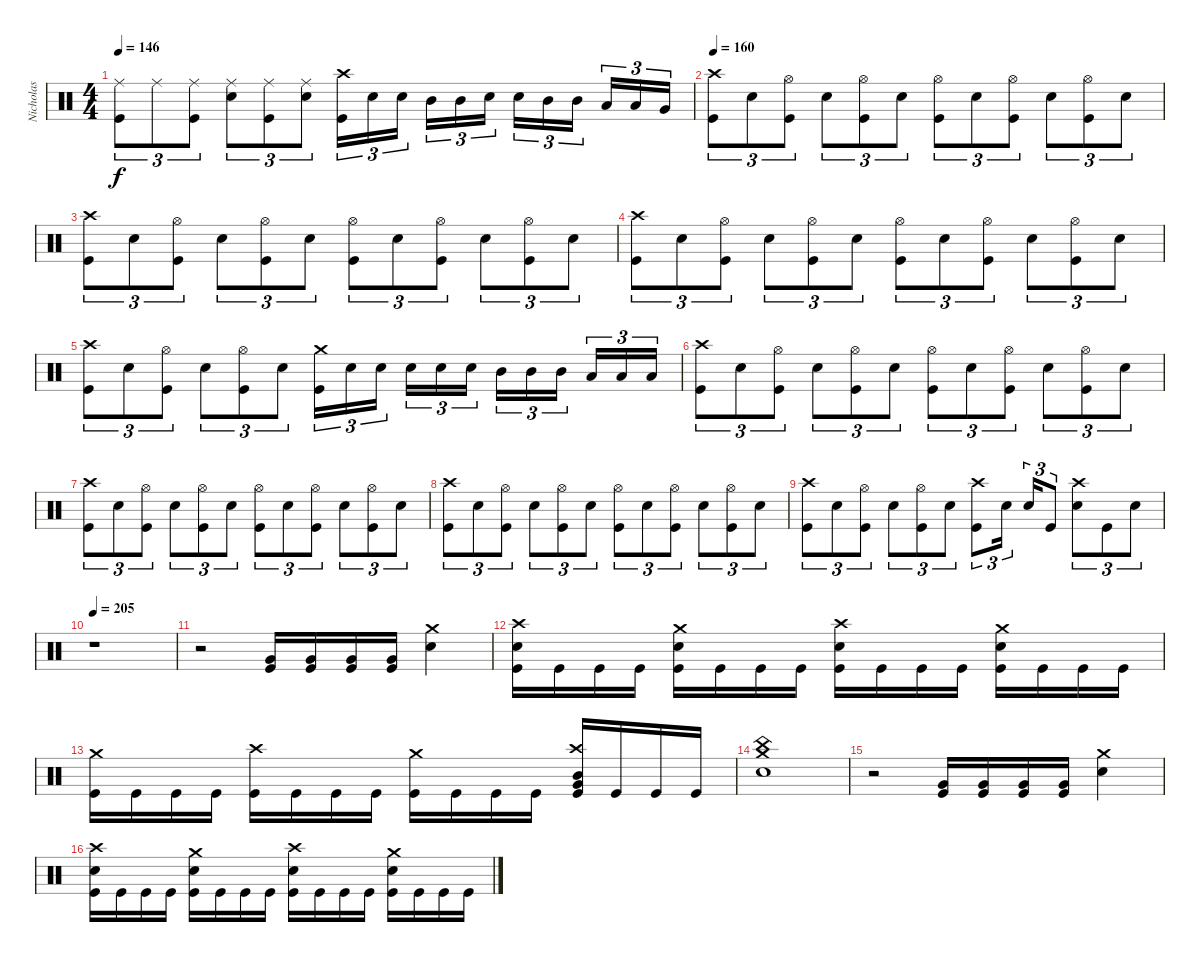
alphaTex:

\track ("Nicholas" "Nicholas") {instrument percussion}
\staff {score}
\articulation defaults
\ts (4 4)
\tempo 146
\clef neutral
\ks c
("Ride (middle)" "Kick (hit)").8{tu (3 2) dy f} "Ride (middle)".8{tu (3 2)} ("Ride (middle)" "Kick (hit)").8{tu (3 2)} ("Ride (middle)" "Electric Snare (hit)").8{tu (3 2)} ("Ride (middle)" "Kick (hit)").8{tu (3 2)} ("Ride (middle)" "Electric Snare (hit)").8{tu (3 2)} ("Crash high (hit)" "Kick (hit)").16{tu (3 2)} "Electric Snare (hit)".16{tu (3 2)} "Electric Snare (hit)".16{tu (3 2)} "Mid Tom (hit)".16{tu (3 2)} "Mid Tom (hit)".16{tu (3 2)} "Electric Snare (hit)".16{tu (3 2)} "Electric Snare (hit)".16{tu (3 2)} "Mid Tom (hit)".16{tu (3 2)} "Mid Tom (hit)".16{tu (3 2)} "Low Tom (hit)".16{tu (3 2)} "Low Tom (hit)".16{tu (3 2)} "Very Low Tom (hit)".16{tu (3 2)} |
\tempo 160
("Crash high (hit)" "Kick (hit)").8{tu (3 2)} "Electric Snare (hit)".8{tu (3 2)} ("Hi-Hat (open)" "Kick (hit)").8{tu (3 2)} "Electric Snare (hit)".8{tu (3 2)} ("Hi-Hat (open)" "Kick (hit)").8{tu (3 2)} "Electric Snare (hit)".8{tu (3 2)} ("Hi-Hat (open)" "Kick (hit)").8{tu (3 2)} "Electric Snare (hit)".8{tu (3 2)} ("Hi-Hat (open)" "Kick (hit)").8{tu (3 2)} "Electric Snare (hit)".8{tu (3 2)} ("Hi-Hat (open)" "Kick (hit)").8{tu (3 2)} "Electric Snare (hit)".8{tu (3 2)} |
("Crash high (hit)" "Kick (hit)").8{tu (3 2)} "Electric Snare (hit)".8{tu (3 2)} ("Hi-Hat (open)" "Kick (hit)").8{tu (3 2)} "Electric Snare (hit)".8{tu (3 2)} ("Hi-Hat (open)" "Kick (hit)").8{tu (3 2)} "Electric Snare (hit)".8{tu (3 2)} ("Hi-Hat (open)" "Kick (hit)").8{tu (3 2)} "Electric Snare (hit)".8{tu (3 2)} ("Hi-Hat (open)" "Kick (hit)").8{tu (3 2)} "Electric Snare (hit)".8{tu (3 2)} ("Hi-Hat (open)" "Kick (hit)").8{tu (3 2)} "Electric Snare (hit)".8{tu (3 2)} |
("Crash high (hit)" "Kick (hit)").8{tu (3 2)} "Electric Snare (hit)".8{tu (3 2)} ("Hi-Hat (open)" "Kick (hit)").8{tu (3 2)} "Electric Snare (hit)".8{tu (3 2)} ("Hi-Hat (open)" "Kick (hit)").8{tu (3 2)} "Electric Snare (hit)".8{tu (3 2)} ("Hi-Hat (open)" "Kick (hit)").8{tu (3 2)} "Electric Snare (hit)".8{tu (3 2)} ("Hi-Hat (open)" "Kick (hit)").8{tu (3 2)} "Electric Snare (hit)".8{tu (3 2)} ("Hi-Hat (open)" "Kick (hit)").8{tu (3 2)} "Electric Snare (hit)".8{tu (3 2)} |
("Crash high (hit)" "Kick (hit)").8{tu (3 2)} "Electric Snare (hit)".8{tu (3 2)} ("Hi-Hat (open)" "Kick (hit)").8{tu (3 2)} "Electric Snare (hit)".8{tu (3 2)} ("Hi-Hat (open)" "Kick (hit)").8{tu (3 2)} "Electric Snare (hit)".8{tu (3 2)} ("Crash medium (hit)" "Kick (hit)").16{tu (3 2)} "Electric Snare (hit)".16{tu (3 2)} "Electric Snare (hit)".16{tu (3 2)} "Electric Snare (hit)".16{tu (3 2)} "Electric Snare (hit)".16{tu (3 2)} "Electric Snare (hit)".16{tu (3 2)} "Mid Tom (hit)".16{tu (3 2)} "Mid Tom (hit)".16{tu (3 2)} "Mid Tom (hit)".16{tu (3 2)} "Low Tom (hit)".16{tu (3 2)} "Low Tom (hit)".16{tu (3 2)} "Low Tom (hit)".16{tu (3 2)} |
("Crash high (hit)" "Kick (hit)").8{tu (3 2)} "Electric Snare (hit)".8{tu (3 2)} ("Hi-Hat (open)" "Kick (hit)").8{tu (3 2)} "Electric Snare (hit)".8{tu (3 2)} ("Hi-Hat (open)" "Kick (hit)").8{tu (3 2)} "Electric Snare (hit)".8{tu (3 2)} ("Hi-Hat (open)" "Kick (hit)").8{tu (3 2)} "Electric Snare (hit)".8{tu (3 2)} ("Hi-Hat (open)" "Kick (hit)").8{tu (3 2)} "Electric Snare (hit)".8{tu (3 2)} ("Hi-Hat (open)" "Kick (hit)").8{tu (3 2)} "Electric Snare (hit)".8{tu (3 2)} |
("Crash high (hit)" "Kick (hit)").8{tu (3 2)} "Electric Snare (hit)".8{tu (3 2)} ("Hi-Hat (open)" "Kick (hit)").8{tu (3 2)} "Electric Snare (hit)".8{tu (3 2)} ("Hi-Hat (open)" "Kick (hit)").8{tu (3 2)} "Electric Snare (hit)".8{tu (3 2)} ("Hi-Hat (open)" "Kick (hit)").8{tu (3 2)} "Electric Snare (hit)".8{tu (3 2)} ("Hi-Hat (open)" "Kick (hit)").8{tu (3 2)} "Electric Snare (hit)".8{tu (3 2)} ("Hi-Hat (open)" "Kick (hit)").8{tu (3 2)} "Electric Snare (hit)".8{tu (3 2)} |
("Crash high (hit)" "Kick (hit)").8{tu (3 2)} "Electric Snare (hit)".8{tu (3 2)} ("Hi-Hat (open)" "Kick (hit)").8{tu (3 2)} "Electric Snare (hit)".8{tu (3 2)} ("Hi-Hat (open)" "Kick (hit)").8{tu (3 2)} "Electric Snare (hit)".8{tu (3 2)} ("Hi-Hat (open)" "Kick (hit)").8{tu (3 2)} "Electric Snare (hit)".8{tu (3 2)} ("Hi-Hat (open)" "Kick (hit)").8{tu (3 2)} "Electric Snare (hit)".8{tu (3 2)} ("Hi-Hat (open)" "Kick (hit)").8{tu (3 2)} "Electric Snare (hit)".8{tu (3 2)} |
("Crash high (hit)" "Kick (hit)").8{tu (3 2)} "Electric Snare (hit)".8{tu (3 2)} ("Hi-Hat (open)" "Kick (hit)").8{tu (3 2)} "Electric Snare (hit)".8{tu (3 2)} ("Hi-Hat (open)" "Kick (hit)").8{tu (3 2)} "Electric Snare (hit)".8{tu (3 2)} ("Crash high (hit)" "Kick (hit)").8{tu (3 2)} "Electric Snare (hit)".16{tu (3 2)} "Electric Snare (hit)".16{tu (3 2)} "Kick (hit)".8{tu (3 2)} ("Crash high (hit)" "Electric Snare (hit)").8{tu (3 2)} "Kick (hit)".8{tu (3 2)} "Electric Snare (hit)".8{tu (3 2)} |
\tempo 205
r.1 |
r.2 ("Kick (hit)" "Very Low Tom (hit)").16 ("Kick (hit)" "Very Low Tom (hit)").16 ("Kick (hit)" "Very Low Tom (hit)").16 ("Kick (hit)" "Very Low Tom (hit)").16 ("Electric Snare (hit)" "Crash medium (hit)").4 |
("Crash high (hit)" "Electric Snare (hit)" "Kick (hit)").16 "Kick (hit)".16 "Kick (hit)".16 "Kick (hit)".16 ("Crash medium (hit)" "Electric Snare (hit)" "Kick (hit)").16 "Kick (hit)".16 "Kick (hit)".16 "Kick (hit)".16 ("Crash high (hit)" "Electric Snare (hit)" "Kick (hit)").16 "Kick (hit)".16 "Kick (hit)".16 "Kick (hit)".16 ("Crash medium (hit)" "Electric Snare (hit)" "Kick (hit)").16 "Kick (hit)".16 "Kick (hit)".16 "Kick (hit)".16 |
("Crash medium (hit)" "Kick (hit)").16 "Kick (hit)".16 "Kick (hit)".16 "Kick (hit)".16 ("Crash high (hit)" "Kick (hit)").16 "Kick (hit)".16 "Kick (hit)".16 "Kick (hit)".16 ("Crash medium (hit)" "Kick (hit)").16 "Kick (hit)".16 "Kick (hit)".16 "Kick (hit)".16 ("Crash high (hit)" "Mid Tom (hit)" "Very Low Tom (hit)" "Kick (hit)").16 "Kick (hit)".16 "Kick (hit)".16 "Kick (hit)".16 |
("Crash medium (hit)" "China (hit)" "Electric Snare (hit)").1 |
r.2 ("Kick (hit)" "Very Low Tom (hit)").16 ("Kick (hit)" "Very Low Tom (hit)").16 ("Kick (hit)" "Very Low Tom (hit)").16 ("Kick (hit)" "Very Low Tom (hit)").16 ("Electric Snare (hit)" "Crash medium (hit)").4 |
("Crash high (hit)" "Electric Snare (hit)" "Kick (hit)").16 "Kick (hit)".16 "Kick (hit)".16 "Kick (hit)".16 ("Crash medium (hit)" "Electric Snare (hit)" "Kick (hit)").16 "Kick (hit)".16 "Kick (hit)".16 "Kick (hit)".16 ("Crash high (hit)" "Electric Snare (hit)" "Kick (hit)").16 "Kick (hit)".16 "Kick (hit)".16 "Kick (hit)".16 ("Crash medium (hit)" "Electric Snare (hit)" "Kick (hit)").16 "Kick (hit)".16 "Kick (hit)".16 "Kick (hit)".16
